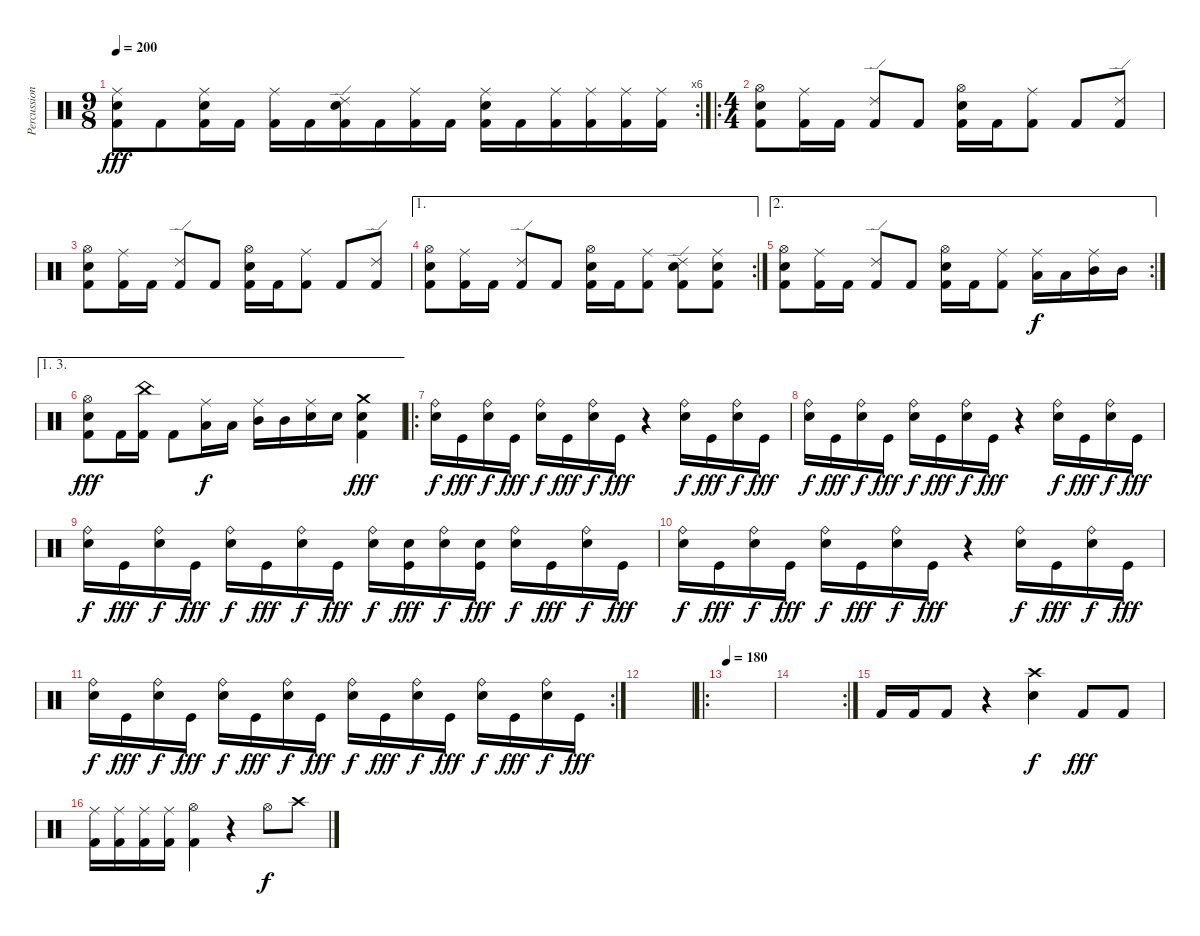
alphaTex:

\track ("Percussion" "Percussion") {instrument percussion}
\staff {score}
\articulation defaults
\rc 6
\ts (9 8)
\tempo 200
\clef neutral
\ks c
("Ride (middle)" "Electric Snare (hit)" "Kick (hit) 2").8{dy fff} "Kick (hit) 2".8 ("Ride (middle)" "Electric Snare (hit)" "Kick (hit) 2").16 "Kick (hit) 2".16 ("Ride (middle)" "Kick (hit) 2").16 "Kick (hit) 2".16 ("Ride (edge) 2" "Electric Snare (hit)" "Kick (hit) 2").16 "Kick (hit) 2".16 ("Ride (middle)" "Kick (hit) 2").16 "Kick (hit) 2".16 ("Ride (middle)" "Electric Snare (hit)" "Kick (hit) 2").16 "Kick (hit) 2".16 ("Ride (middle)" "Kick (hit) 2").16 ("Ride (middle)" "Kick (hit) 2").16 ("Ride (middle)" "Kick (hit) 2").16 ("Ride (middle)" "Kick (hit) 2").16 |
\ro
\ts (4 4)
("Hi-Hat (open)" "Electric Snare (hit)" "Kick (hit) 2").8 ("Ride (middle)" "Kick (hit) 2").16 "Kick (hit) 2".16 ("Ride (edge) 2" "Kick (hit) 2").8 "Kick (hit) 2".8 ("Hi-Hat (open)" "Electric Snare (hit)" "Kick (hit) 2").16 "Kick (hit) 2".16 ("Ride (middle)" "Kick (hit) 2").8 "Kick (hit) 2".8 ("Ride (edge) 2" "Kick (hit) 2").8 |
("Hi-Hat (open)" "Electric Snare (hit)" "Kick (hit) 2").8 ("Ride (middle)" "Kick (hit) 2").16 "Kick (hit) 2".16 ("Ride (edge) 2" "Kick (hit) 2").8 "Kick (hit) 2".8 ("Hi-Hat (open)" "Electric Snare (hit)" "Kick (hit) 2").16 "Kick (hit) 2".16 ("Ride (middle)" "Kick (hit) 2").8 "Kick (hit) 2".8 ("Ride (edge) 2" "Kick (hit) 2").8 |
\ae 1
\rc 2
("Hi-Hat (open)" "Electric Snare (hit)" "Kick (hit) 2").8 ("Ride (middle)" "Kick (hit) 2").16 "Kick (hit) 2".16 ("Ride (edge) 2" "Kick (hit) 2").8 "Kick (hit) 2".8 ("Hi-Hat (open)" "Electric Snare (hit)" "Kick (hit) 2").16 "Kick (hit) 2".16 ("Ride (middle)" "Kick (hit) 2").8 ("Ride (edge) 2" "Electric Snare (hit)" "Kick (hit) 2").8 ("Ride (middle)" "Electric Snare (hit)" "Kick (hit) 2").8 |
\ae 2
\rc 2
("Hi-Hat (open)" "Electric Snare (hit)" "Kick (hit) 2").8 ("Ride (middle)" "Kick (hit) 2").16 "Kick (hit) 2".16 ("Ride (edge) 2" "Kick (hit) 2").8 "Kick (hit) 2".8 ("Hi-Hat (open)" "Electric Snare (hit)" "Kick (hit) 2").16 "Kick (hit) 2".16 ("Ride (middle)" "Kick (hit) 2").8 ("Ride (middle)" "Low Tom (hit)").16{dy f} "Low Tom (hit)".16 ("Ride (middle)" "Mid Tom (hit)").16 "Mid Tom (hit)".16 |
\ae (1 3)
("Hi-Hat (open)" "Electric Snare (hit)" "Kick (hit) 2").8{dy fff} "Kick (hit) 2".16 ("China (hit)" "Kick (hit) 2").16 "Kick (hit) 2".8 ("Ride (middle)" "Low Tom (hit)").16{dy f} "Low Tom (hit)".16 ("Ride (middle)" "Mid Tom (hit)").16 "Mid Tom (hit)".16 ("Ride (middle)" "Electric Snare (hit)").16 "Electric Snare (hit)".16 ("Crash medium (hit)" "Electric Snare (hit)" "Kick (hit) 2").4{dy fff} |
\ro
("Ride (bell)" "Electric Snare (hit)").16{dy f} "Kick (hit)".16{dy fff} ("Ride (bell)" "Electric Snare (hit)").16{dy f} "Kick (hit)".16{dy fff} ("Ride (bell)" "Electric Snare (hit)").16{dy f} "Kick (hit)".16{dy fff} ("Ride (bell)" "Electric Snare (hit)").16{dy f} "Kick (hit)".16{dy fff} r.4 ("Ride (bell)" "Electric Snare (hit)").16{dy f} "Kick (hit)".16{dy fff} ("Ride (bell)" "Electric Snare (hit)").16{dy f} "Kick (hit)".16{dy fff} |
("Ride (bell)" "Electric Snare (hit)").16{dy f} "Kick (hit)".16{dy fff} ("Ride (bell)" "Electric Snare (hit)").16{dy f} "Kick (hit)".16{dy fff} ("Ride (bell)" "Electric Snare (hit)").16{dy f} "Kick (hit)".16{dy fff} ("Ride (bell)" "Electric Snare (hit)").16{dy f} "Kick (hit)".16{dy fff} r.4 ("Ride (bell)" "Electric Snare (hit)").16{dy f} "Kick (hit)".16{dy fff} ("Ride (bell)" "Electric Snare (hit)").16{dy f} "Kick (hit)".16{dy fff} |
("Ride (bell)" "Electric Snare (hit)").16{dy f} "Kick (hit)".16{dy fff} ("Ride (bell)" "Electric Snare (hit)").16{dy f} "Kick (hit)".16{dy fff} ("Ride (bell)" "Electric Snare (hit)").16{dy f} "Kick (hit)".16{dy fff} ("Ride (bell)" "Electric Snare (hit)").16{dy f} "Kick (hit)".16{dy fff} ("Ride (bell)" "Electric Snare (hit)").16{dy f} ("Electric Snare (hit)" "Kick (hit)").16{dy fff} ("Ride (bell)" "Electric Snare (hit)").16{dy f} ("Electric Snare (hit)" "Kick (hit)").16{dy fff} ("Ride (bell)" "Electric Snare (hit)").16{dy f} "Kick (hit)".16{dy fff} ("Ride (bell)" "Electric Snare (hit)").16{dy f} "Kick (hit)".16{dy fff} |
("Ride (bell)" "Electric Snare (hit)").16{dy f} "Kick (hit)".16{dy fff} ("Ride (bell)" "Electric Snare (hit)").16{dy f} "Kick (hit)".16{dy fff} ("Ride (bell)" "Electric Snare (hit)").16{dy f} "Kick (hit)".16{dy fff} ("Ride (bell)" "Electric Snare (hit)").16{dy f} "Kick (hit)".16{dy fff} r.4 ("Ride (bell)" "Electric Snare (hit)").16{dy f} "Kick (hit)".16{dy fff} ("Ride (bell)" "Electric Snare (hit)").16{dy f} "Kick (hit)".16{dy fff} |
\rc 2
("Ride (bell)" "Electric Snare (hit)").16{dy f} "Kick (hit)".16{dy fff} ("Ride (bell)" "Electric Snare (hit)").16{dy f} "Kick (hit)".16{dy fff} ("Ride (bell)" "Electric Snare (hit)").16{dy f} "Kick (hit)".16{dy fff} ("Ride (bell)" "Electric Snare (hit)").16{dy f} "Kick (hit)".16{dy fff} ("Ride (bell)" "Electric Snare (hit)").16{dy f} "Kick (hit)".16{dy fff} ("Ride (bell)" "Electric Snare (hit)").16{dy f} "Kick (hit)".16{dy fff} ("Ride (bell)" "Electric Snare (hit)").16{dy f} "Kick (hit)".16{dy fff} ("Ride (bell)" "Electric Snare (hit)").16{dy f} "Kick (hit)".16{dy fff} |
|
\ro
\tempo 180
|
\rc 2
|
"Kick (hit) 2".16 "Kick (hit) 2".16 "Kick (hit) 2".8 r.4 ("Crash high (hit)" "Electric Snare (hit)").4{dy f} "Kick (hit) 2".8{dy fff} "Kick (hit) 2".8 |
("Ride (middle)" "Kick (hit) 2").16 ("Ride (middle)" "Kick (hit) 2").16 ("Ride (middle)" "Kick (hit) 2").16 ("Ride (middle)" "Kick (hit) 2").16 ("Hi-Hat (open)" "Kick (hit) 2").4 r.4 "Hi-Hat (open)".8{dy f} "Crash high (hit)".8
